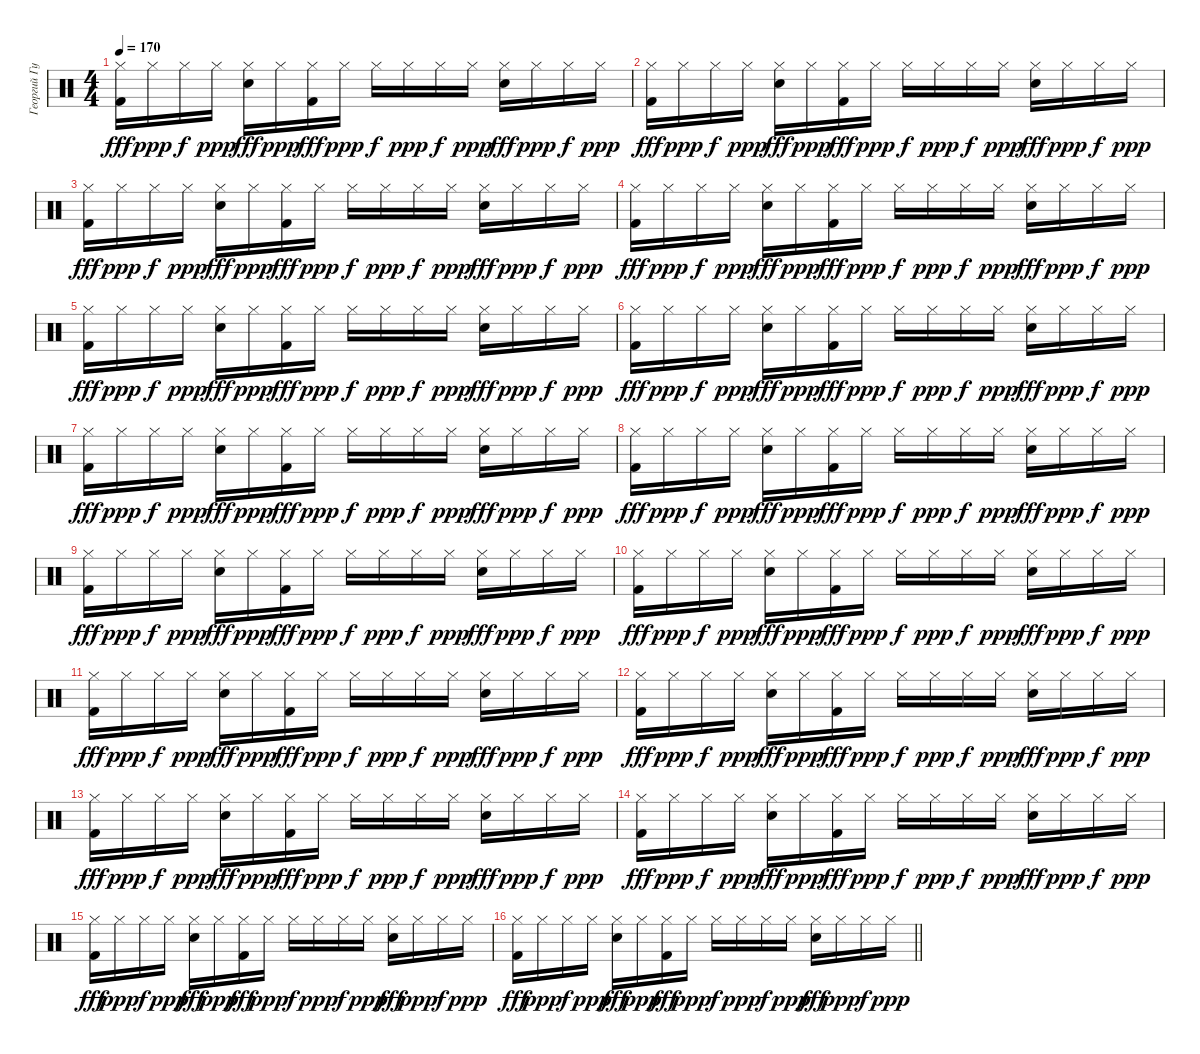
\track ("Георгий Гурьянов" "Георгий Гу") {instrument percussion}
\staff {score}
\articulation defaults
\ts (4 4)
\tempo 170
\clef neutral
\ks c
("Hi-Hat (closed)" "Kick (hit) 2").16{dy fff} "Hi-Hat (closed)".16{dy ppp} "Hi-Hat (closed)".16{dy f} "Hi-Hat (closed)".16{dy ppp} ("Hi-Hat (closed)" "Electric Snare (hit)").16{dy fff} "Hi-Hat (closed)".16{dy ppp} ("Hi-Hat (closed)" "Kick (hit) 2").16{dy fff} "Hi-Hat (closed)".16{dy ppp} "Hi-Hat (closed)".16{dy f} "Hi-Hat (closed)".16{dy ppp} "Hi-Hat (closed)".16{dy f} "Hi-Hat (closed)".16{dy ppp} ("Hi-Hat (closed)" "Electric Snare (hit)").16{dy fff} "Hi-Hat (closed)".16{dy ppp} "Hi-Hat (closed)".16{dy f} "Hi-Hat (closed)".16{dy ppp} |
("Hi-Hat (closed)" "Kick (hit) 2").16{dy fff} "Hi-Hat (closed)".16{dy ppp} "Hi-Hat (closed)".16{dy f} "Hi-Hat (closed)".16{dy ppp} ("Hi-Hat (closed)" "Electric Snare (hit)").16{dy fff} "Hi-Hat (closed)".16{dy ppp} ("Hi-Hat (closed)" "Kick (hit) 2").16{dy fff} "Hi-Hat (closed)".16{dy ppp} "Hi-Hat (closed)".16{dy f} "Hi-Hat (closed)".16{dy ppp} "Hi-Hat (closed)".16{dy f} "Hi-Hat (closed)".16{dy ppp} ("Hi-Hat (closed)" "Electric Snare (hit)").16{dy fff} "Hi-Hat (closed)".16{dy ppp} "Hi-Hat (closed)".16{dy f} "Hi-Hat (closed)".16{dy ppp} |
("Hi-Hat (closed)" "Kick (hit) 2").16{dy fff} "Hi-Hat (closed)".16{dy ppp} "Hi-Hat (closed)".16{dy f} "Hi-Hat (closed)".16{dy ppp} ("Hi-Hat (closed)" "Electric Snare (hit)").16{dy fff} "Hi-Hat (closed)".16{dy ppp} ("Hi-Hat (closed)" "Kick (hit) 2").16{dy fff} "Hi-Hat (closed)".16{dy ppp} "Hi-Hat (closed)".16{dy f} "Hi-Hat (closed)".16{dy ppp} "Hi-Hat (closed)".16{dy f} "Hi-Hat (closed)".16{dy ppp} ("Hi-Hat (closed)" "Electric Snare (hit)").16{dy fff} "Hi-Hat (closed)".16{dy ppp} "Hi-Hat (closed)".16{dy f} "Hi-Hat (closed)".16{dy ppp} |
("Hi-Hat (closed)" "Kick (hit) 2").16{dy fff} "Hi-Hat (closed)".16{dy ppp} "Hi-Hat (closed)".16{dy f} "Hi-Hat (closed)".16{dy ppp} ("Hi-Hat (closed)" "Electric Snare (hit)").16{dy fff} "Hi-Hat (closed)".16{dy ppp} ("Hi-Hat (closed)" "Kick (hit) 2").16{dy fff} "Hi-Hat (closed)".16{dy ppp} "Hi-Hat (closed)".16{dy f} "Hi-Hat (closed)".16{dy ppp} "Hi-Hat (closed)".16{dy f} "Hi-Hat (closed)".16{dy ppp} ("Hi-Hat (closed)" "Electric Snare (hit)").16{dy fff} "Hi-Hat (closed)".16{dy ppp} "Hi-Hat (closed)".16{dy f} "Hi-Hat (closed)".16{dy ppp} |
("Hi-Hat (closed)" "Kick (hit) 2").16{dy fff} "Hi-Hat (closed)".16{dy ppp} "Hi-Hat (closed)".16{dy f} "Hi-Hat (closed)".16{dy ppp} ("Hi-Hat (closed)" "Electric Snare (hit)").16{dy fff} "Hi-Hat (closed)".16{dy ppp} ("Hi-Hat (closed)" "Kick (hit) 2").16{dy fff} "Hi-Hat (closed)".16{dy ppp} "Hi-Hat (closed)".16{dy f} "Hi-Hat (closed)".16{dy ppp} "Hi-Hat (closed)".16{dy f} "Hi-Hat (closed)".16{dy ppp} ("Hi-Hat (closed)" "Electric Snare (hit)").16{dy fff} "Hi-Hat (closed)".16{dy ppp} "Hi-Hat (closed)".16{dy f} "Hi-Hat (closed)".16{dy ppp} |
("Hi-Hat (closed)" "Kick (hit) 2").16{dy fff} "Hi-Hat (closed)".16{dy ppp} "Hi-Hat (closed)".16{dy f} "Hi-Hat (closed)".16{dy ppp} ("Hi-Hat (closed)" "Electric Snare (hit)").16{dy fff} "Hi-Hat (closed)".16{dy ppp} ("Hi-Hat (closed)" "Kick (hit) 2").16{dy fff} "Hi-Hat (closed)".16{dy ppp} "Hi-Hat (closed)".16{dy f} "Hi-Hat (closed)".16{dy ppp} "Hi-Hat (closed)".16{dy f} "Hi-Hat (closed)".16{dy ppp} ("Hi-Hat (closed)" "Electric Snare (hit)").16{dy fff} "Hi-Hat (closed)".16{dy ppp} "Hi-Hat (closed)".16{dy f} "Hi-Hat (closed)".16{dy ppp} |
("Hi-Hat (closed)" "Kick (hit) 2").16{dy fff} "Hi-Hat (closed)".16{dy ppp} "Hi-Hat (closed)".16{dy f} "Hi-Hat (closed)".16{dy ppp} ("Hi-Hat (closed)" "Electric Snare (hit)").16{dy fff} "Hi-Hat (closed)".16{dy ppp} ("Hi-Hat (closed)" "Kick (hit) 2").16{dy fff} "Hi-Hat (closed)".16{dy ppp} "Hi-Hat (closed)".16{dy f} "Hi-Hat (closed)".16{dy ppp} "Hi-Hat (closed)".16{dy f} "Hi-Hat (closed)".16{dy ppp} ("Hi-Hat (closed)" "Electric Snare (hit)").16{dy fff} "Hi-Hat (closed)".16{dy ppp} "Hi-Hat (closed)".16{dy f} "Hi-Hat (closed)".16{dy ppp} |
("Hi-Hat (closed)" "Kick (hit) 2").16{dy fff} "Hi-Hat (closed)".16{dy ppp} "Hi-Hat (closed)".16{dy f} "Hi-Hat (closed)".16{dy ppp} ("Hi-Hat (closed)" "Electric Snare (hit)").16{dy fff} "Hi-Hat (closed)".16{dy ppp} ("Hi-Hat (closed)" "Kick (hit) 2").16{dy fff} "Hi-Hat (closed)".16{dy ppp} "Hi-Hat (closed)".16{dy f} "Hi-Hat (closed)".16{dy ppp} "Hi-Hat (closed)".16{dy f} "Hi-Hat (closed)".16{dy ppp} ("Hi-Hat (closed)" "Electric Snare (hit)").16{dy fff} "Hi-Hat (closed)".16{dy ppp} "Hi-Hat (closed)".16{dy f} "Hi-Hat (closed)".16{dy ppp} |
("Hi-Hat (closed)" "Kick (hit) 2").16{dy fff} "Hi-Hat (closed)".16{dy ppp} "Hi-Hat (closed)".16{dy f} "Hi-Hat (closed)".16{dy ppp} ("Hi-Hat (closed)" "Electric Snare (hit)").16{dy fff} "Hi-Hat (closed)".16{dy ppp} ("Hi-Hat (closed)" "Kick (hit) 2").16{dy fff} "Hi-Hat (closed)".16{dy ppp} "Hi-Hat (closed)".16{dy f} "Hi-Hat (closed)".16{dy ppp} "Hi-Hat (closed)".16{dy f} "Hi-Hat (closed)".16{dy ppp} ("Hi-Hat (closed)" "Electric Snare (hit)").16{dy fff} "Hi-Hat (closed)".16{dy ppp} "Hi-Hat (closed)".16{dy f} "Hi-Hat (closed)".16{dy ppp} |
("Hi-Hat (closed)" "Kick (hit) 2").16{dy fff} "Hi-Hat (closed)".16{dy ppp} "Hi-Hat (closed)".16{dy f} "Hi-Hat (closed)".16{dy ppp} ("Hi-Hat (closed)" "Electric Snare (hit)").16{dy fff} "Hi-Hat (closed)".16{dy ppp} ("Hi-Hat (closed)" "Kick (hit) 2").16{dy fff} "Hi-Hat (closed)".16{dy ppp} "Hi-Hat (closed)".16{dy f} "Hi-Hat (closed)".16{dy ppp} "Hi-Hat (closed)".16{dy f} "Hi-Hat (closed)".16{dy ppp} ("Hi-Hat (closed)" "Electric Snare (hit)").16{dy fff} "Hi-Hat (closed)".16{dy ppp} "Hi-Hat (closed)".16{dy f} "Hi-Hat (closed)".16{dy ppp} |
("Hi-Hat (closed)" "Kick (hit) 2").16{dy fff} "Hi-Hat (closed)".16{dy ppp} "Hi-Hat (closed)".16{dy f} "Hi-Hat (closed)".16{dy ppp} ("Hi-Hat (closed)" "Electric Snare (hit)").16{dy fff} "Hi-Hat (closed)".16{dy ppp} ("Hi-Hat (closed)" "Kick (hit) 2").16{dy fff} "Hi-Hat (closed)".16{dy ppp} "Hi-Hat (closed)".16{dy f} "Hi-Hat (closed)".16{dy ppp} "Hi-Hat (closed)".16{dy f} "Hi-Hat (closed)".16{dy ppp} ("Hi-Hat (closed)" "Electric Snare (hit)").16{dy fff} "Hi-Hat (closed)".16{dy ppp} "Hi-Hat (closed)".16{dy f} "Hi-Hat (closed)".16{dy ppp} |
("Hi-Hat (closed)" "Kick (hit) 2").16{dy fff} "Hi-Hat (closed)".16{dy ppp} "Hi-Hat (closed)".16{dy f} "Hi-Hat (closed)".16{dy ppp} ("Hi-Hat (closed)" "Electric Snare (hit)").16{dy fff} "Hi-Hat (closed)".16{dy ppp} ("Hi-Hat (closed)" "Kick (hit) 2").16{dy fff} "Hi-Hat (closed)".16{dy ppp} "Hi-Hat (closed)".16{dy f} "Hi-Hat (closed)".16{dy ppp} "Hi-Hat (closed)".16{dy f} "Hi-Hat (closed)".16{dy ppp} ("Hi-Hat (closed)" "Electric Snare (hit)").16{dy fff} "Hi-Hat (closed)".16{dy ppp} "Hi-Hat (closed)".16{dy f} "Hi-Hat (closed)".16{dy ppp} |
("Hi-Hat (closed)" "Kick (hit) 2").16{dy fff} "Hi-Hat (closed)".16{dy ppp} "Hi-Hat (closed)".16{dy f} "Hi-Hat (closed)".16{dy ppp} ("Hi-Hat (closed)" "Electric Snare (hit)").16{dy fff} "Hi-Hat (closed)".16{dy ppp} ("Hi-Hat (closed)" "Kick (hit) 2").16{dy fff} "Hi-Hat (closed)".16{dy ppp} "Hi-Hat (closed)".16{dy f} "Hi-Hat (closed)".16{dy ppp} "Hi-Hat (closed)".16{dy f} "Hi-Hat (closed)".16{dy ppp} ("Hi-Hat (closed)" "Electric Snare (hit)").16{dy fff} "Hi-Hat (closed)".16{dy ppp} "Hi-Hat (closed)".16{dy f} "Hi-Hat (closed)".16{dy ppp} |
("Hi-Hat (closed)" "Kick (hit) 2").16{dy fff} "Hi-Hat (closed)".16{dy ppp} "Hi-Hat (closed)".16{dy f} "Hi-Hat (closed)".16{dy ppp} ("Hi-Hat (closed)" "Electric Snare (hit)").16{dy fff} "Hi-Hat (closed)".16{dy ppp} ("Hi-Hat (closed)" "Kick (hit) 2").16{dy fff} "Hi-Hat (closed)".16{dy ppp} "Hi-Hat (closed)".16{dy f} "Hi-Hat (closed)".16{dy ppp} "Hi-Hat (closed)".16{dy f} "Hi-Hat (closed)".16{dy ppp} ("Hi-Hat (closed)" "Electric Snare (hit)").16{dy fff} "Hi-Hat (closed)".16{dy ppp} "Hi-Hat (closed)".16{dy f} "Hi-Hat (closed)".16{dy ppp} |
("Hi-Hat (closed)" "Kick (hit) 2").16{dy fff} "Hi-Hat (closed)".16{dy ppp} "Hi-Hat (closed)".16{dy f} "Hi-Hat (closed)".16{dy ppp} ("Hi-Hat (closed)" "Electric Snare (hit)").16{dy fff} "Hi-Hat (closed)".16{dy ppp} ("Hi-Hat (closed)" "Kick (hit) 2").16{dy fff} "Hi-Hat (closed)".16{dy ppp} "Hi-Hat (closed)".16{dy f} "Hi-Hat (closed)".16{dy ppp} "Hi-Hat (closed)".16{dy f} "Hi-Hat (closed)".16{dy ppp} ("Hi-Hat (closed)" "Electric Snare (hit)").16{dy fff} "Hi-Hat (closed)".16{dy ppp} "Hi-Hat (closed)".16{dy f} "Hi-Hat (closed)".16{dy ppp} |
\barLineRight lightlight
("Hi-Hat (closed)" "Kick (hit) 2").16{dy fff} "Hi-Hat (closed)".16{dy ppp} "Hi-Hat (closed)".16{dy f} "Hi-Hat (closed)".16{dy ppp} ("Hi-Hat (closed)" "Electric Snare (hit)").16{dy fff} "Hi-Hat (closed)".16{dy ppp} ("Hi-Hat (closed)" "Kick (hit) 2").16{dy fff} "Hi-Hat (closed)".16{dy ppp} "Hi-Hat (closed)".16{dy f} "Hi-Hat (closed)".16{dy ppp} "Hi-Hat (closed)".16{dy f} "Hi-Hat (closed)".16{dy ppp} ("Hi-Hat (closed)" "Electric Snare (hit)").16{dy fff} "Hi-Hat (closed)".16{dy ppp} "Hi-Hat (closed)".16{dy f} "Hi-Hat (closed)".16{dy ppp}
